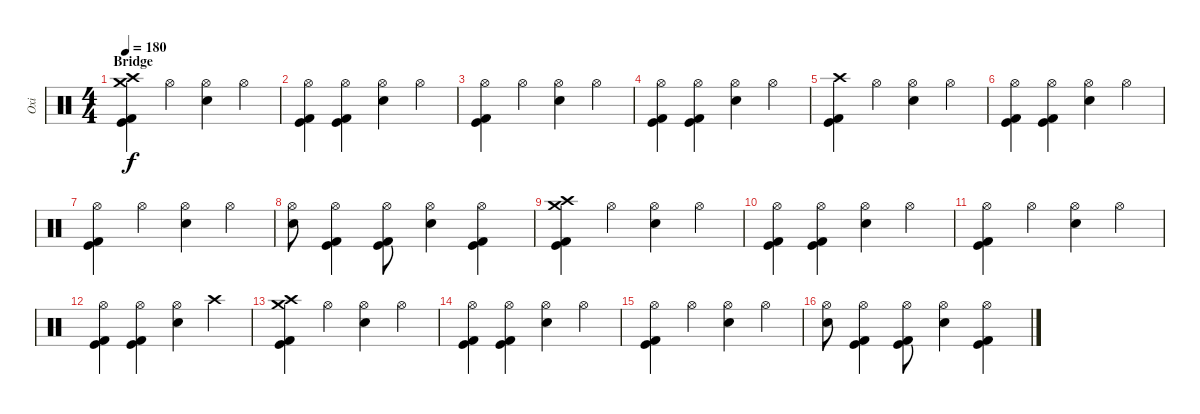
\track ("Oxi" "Oxi") {instrument percussion}
\staff {score}
\articulation defaults
\ts (4 4)
\section ("" "Bridge")
\tempo 180
\clef neutral
\ks c
("Crash medium (hit)" "Crash high (hit)" "Kick (hit) 2" "Kick (hit)").4{dy f} "Hi-Hat (open)".4 ("Hi-Hat (open)" "Electric Snare (hit)").4 "Hi-Hat (open)".4 |
("Hi-Hat (open)" "Kick (hit) 2" "Kick (hit)").4 ("Hi-Hat (open)" "Kick (hit) 2" "Kick (hit)").4 ("Hi-Hat (open)" "Electric Snare (hit)").4 "Hi-Hat (open)".4 |
("Hi-Hat (open)" "Kick (hit) 2" "Kick (hit)").4 "Hi-Hat (open)".4 ("Hi-Hat (open)" "Electric Snare (hit)").4 "Hi-Hat (open)".4 |
("Hi-Hat (open)" "Kick (hit) 2" "Kick (hit)").4 ("Hi-Hat (open)" "Kick (hit) 2" "Kick (hit)").4 ("Hi-Hat (open)" "Electric Snare (hit)").4 "Hi-Hat (open)".4 |
("Crash high (hit)" "Kick (hit) 2" "Kick (hit)").4 "Hi-Hat (open)".4 ("Hi-Hat (open)" "Electric Snare (hit)").4 "Hi-Hat (open)".4 |
("Hi-Hat (open)" "Kick (hit) 2" "Kick (hit)").4 ("Hi-Hat (open)" "Kick (hit) 2" "Kick (hit)").4 ("Hi-Hat (open)" "Electric Snare (hit)").4 "Hi-Hat (open)".4 |
("Hi-Hat (open)" "Kick (hit) 2" "Kick (hit)").4 "Hi-Hat (open)".4 ("Hi-Hat (open)" "Electric Snare (hit)").4 "Hi-Hat (open)".4 |
("Hi-Hat (open)" "Electric Snare (hit)").8 ("Hi-Hat (open)" "Kick (hit) 2" "Kick (hit)").4 ("Hi-Hat (open)" "Kick (hit) 2" "Kick (hit)").8 ("Hi-Hat (open)" "Electric Snare (hit)").4 ("Hi-Hat (open)" "Kick (hit) 2" "Kick (hit)").4 |
("Crash medium (hit)" "Crash high (hit)" "Kick (hit) 2" "Kick (hit)").4 "Hi-Hat (open)".4 ("Hi-Hat (open)" "Electric Snare (hit)").4 "Hi-Hat (open)".4 |
("Hi-Hat (open)" "Kick (hit) 2" "Kick (hit)").4 ("Hi-Hat (open)" "Kick (hit) 2" "Kick (hit)").4 ("Hi-Hat (open)" "Electric Snare (hit)").4 "Hi-Hat (open)".4 |
("Hi-Hat (open)" "Kick (hit) 2" "Kick (hit)").4 "Hi-Hat (open)".4 ("Hi-Hat (open)" "Electric Snare (hit)").4 "Hi-Hat (open)".4 |
("Hi-Hat (open)" "Kick (hit) 2" "Kick (hit)").4 ("Hi-Hat (open)" "Kick (hit) 2" "Kick (hit)").4 ("Hi-Hat (open)" "Electric Snare (hit)").4 "Crash high (hit)".4 |
("Crash medium (hit)" "Crash high (hit)" "Kick (hit) 2" "Kick (hit)").4 "Hi-Hat (open)".4 ("Hi-Hat (open)" "Electric Snare (hit)").4 "Hi-Hat (open)".4 |
("Hi-Hat (open)" "Kick (hit) 2" "Kick (hit)").4 ("Hi-Hat (open)" "Kick (hit) 2" "Kick (hit)").4 ("Hi-Hat (open)" "Electric Snare (hit)").4 "Hi-Hat (open)".4 |
("Hi-Hat (open)" "Kick (hit) 2" "Kick (hit)").4 "Hi-Hat (open)".4 ("Hi-Hat (open)" "Electric Snare (hit)").4 "Hi-Hat (open)".4 |
("Hi-Hat (open)" "Electric Snare (hit)").8 ("Hi-Hat (open)" "Kick (hit) 2" "Kick (hit)").4 ("Hi-Hat (open)" "Kick (hit) 2" "Kick (hit)").8 ("Hi-Hat (open)" "Electric Snare (hit)").4 ("Hi-Hat (open)" "Kick (hit) 2" "Kick (hit)").4
